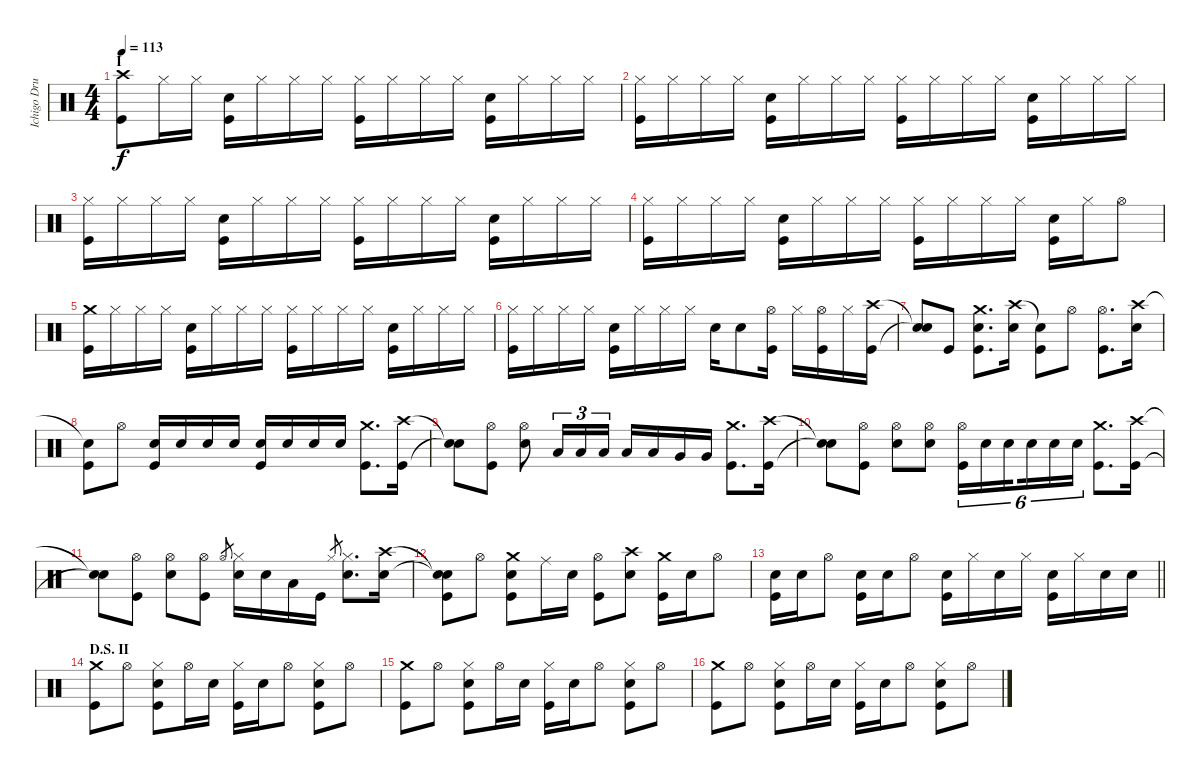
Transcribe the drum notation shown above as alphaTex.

\track ("Ichigo Drums" "Ichigo Dru") {instrument percussion}
\staff {score}
\articulation defaults
\ts (4 4)
\section ("" "I")
\tempo 113
\clef neutral
\ks c
("Crash high (hit)" "Kick (hit)").8{dy f} "Hi-Hat (closed)".16 "Hi-Hat (closed)".16 ("Snare (hit) 2" "Kick (hit)").16 "Hi-Hat (closed)".16 "Hi-Hat (closed)".16 "Hi-Hat (closed)".16 ("Hi-Hat (closed)" "Kick (hit)").16 "Hi-Hat (closed)".16 "Hi-Hat (closed)".16 "Hi-Hat (closed)".16 ("Snare (hit) 2" "Kick (hit)").16 "Hi-Hat (closed)".16 "Hi-Hat (closed)".16 "Hi-Hat (closed)".16 |
("Hi-Hat (closed)" "Kick (hit)").16 "Hi-Hat (closed)".16 "Hi-Hat (closed)".16 "Hi-Hat (closed)".16 ("Snare (hit) 2" "Kick (hit)").16 "Hi-Hat (closed)".16 "Hi-Hat (closed)".16 "Hi-Hat (closed)".16 ("Hi-Hat (closed)" "Kick (hit)").16 "Hi-Hat (closed)".16 "Hi-Hat (closed)".16 "Hi-Hat (closed)".16 ("Snare (hit) 2" "Kick (hit)").16 "Hi-Hat (closed)".16 "Hi-Hat (closed)".16 "Hi-Hat (closed)".16 |
("Hi-Hat (closed)" "Kick (hit)").16 "Hi-Hat (closed)".16 "Hi-Hat (closed)".16 "Hi-Hat (closed)".16 ("Snare (hit) 2" "Kick (hit)").16 "Hi-Hat (closed)".16 "Hi-Hat (closed)".16 "Hi-Hat (closed)".16 ("Hi-Hat (closed)" "Kick (hit)").16 "Hi-Hat (closed)".16 "Hi-Hat (closed)".16 "Hi-Hat (closed)".16 ("Snare (hit) 2" "Kick (hit)").16 "Hi-Hat (closed)".16 "Hi-Hat (closed)".16 "Hi-Hat (closed)".16 |
("Hi-Hat (closed)" "Kick (hit)").16 "Hi-Hat (closed)".16 "Hi-Hat (closed)".16 "Hi-Hat (closed)".16 ("Snare (hit) 2" "Kick (hit)").16 "Hi-Hat (closed)".16 "Hi-Hat (closed)".16 "Hi-Hat (closed)".16 ("Hi-Hat (closed)" "Kick (hit)").16 "Hi-Hat (closed)".16 "Hi-Hat (closed)".16 "Hi-Hat (closed)".16 ("Snare (hit) 2" "Kick (hit)").16 "Hi-Hat (closed)".16 "Hi-Hat (open)".8 |
("Crash medium (hit)" "Kick (hit)").16 "Hi-Hat (closed)".16 "Hi-Hat (closed)".16 "Hi-Hat (closed)".16 ("Snare (hit) 2" "Kick (hit)").16 "Hi-Hat (closed)".16 "Hi-Hat (closed)".16 "Hi-Hat (closed)".16 ("Hi-Hat (closed)" "Kick (hit)").16 "Hi-Hat (closed)".16 "Hi-Hat (closed)".16 "Hi-Hat (closed)".16 ("Snare (hit) 2" "Kick (hit)").16 "Hi-Hat (closed)".16 "Hi-Hat (closed)".16 "Hi-Hat (closed)".16 |
("Hi-Hat (closed)" "Kick (hit)").16 "Hi-Hat (closed)".16 "Hi-Hat (closed)".16 "Hi-Hat (closed)".16 ("Snare (hit) 2" "Kick (hit)").16 "Hi-Hat (closed)".16 "Hi-Hat (closed)".16 "Hi-Hat (closed)".16 "Snare (hit) 2".16 "Snare (hit) 2".8 ("Hi-Hat (open)" "Kick (hit)").16 "Hi-Hat (closed)".16 ("Hi-Hat (open)" "Kick (hit)").16 "Hi-Hat (closed)".16 ("Crash high (hit)" "Kick (hit)").16 |
("Snare (hit)"{t} "Snare (hit)"{t}).8 "Kick (hit)".8 ("Crash medium (hit)" "Snare (hit) 2" "Kick (hit)").8{d} ("Crash high (hit)" "Snare (hit) 2").16 ("Snare (hit)"{t} "Kick (hit)").8 "Hi-Hat (open)".8 ("Hi-Hat (open)" "Kick (hit)").8{d} ("Crash high (hit)" "Snare (hit) 2").16 |
("Snare (hit)"{t} "Kick (hit)").8 "Hi-Hat (open)".8 ("Snare (hit) 2" "Kick (hit)").16 "Snare (hit) 2".16 "Snare (hit) 2".16 "Snare (hit) 2".16 ("Snare (hit) 2" "Kick (hit)").16 "Snare (hit) 2".16 "Snare (hit) 2".16 "Snare (hit) 2".16 ("Crash medium (hit)" "Kick (hit)").8{d} ("Crash high (hit)" "Kick (hit)").16 |
("Snare (hit)"{t} "Snare (hit)"{t}).8 ("Hi-Hat (open)" "Kick (hit)").8 ("Hi-Hat (open)" "Snare (hit) 2").8 "Low Tom (hit)".16{tu (3 2)} "Low Tom (hit)".16{tu (3 2)} "Low Tom (hit)".16{tu (3 2)} "Low Tom (hit)".16 "Low Tom (hit)".16 "Very Low Tom (hit)".16 "Very Low Tom (hit)".16 ("Crash medium (hit)" "Kick (hit)").8{d} ("Crash high (hit)" "Kick (hit)").16 |
("Snare (hit)"{t} "Snare (hit)"{t}).8 ("Hi-Hat (open)" "Kick (hit)").8 ("Hi-Hat (open)" "Snare (hit) 2").8 ("Hi-Hat (open)" "Snare (hit) 2").8 ("Hi-Hat (open)" "Kick (hit)").16{tu (6 4)} "Snare (hit) 2".16{tu (6 4)} "Snare (hit) 2".16{tu (6 4) beam splitsecondary} "Snare (hit) 2".16{tu (6 4)} "Snare (hit) 2".16{tu (6 4)} "Snare (hit) 2".16{tu (6 4)} ("Crash medium (hit)" "Kick (hit)").8{d} ("Crash high (hit)" "Kick (hit)").16 |
("Snare (hit)"{t} "Snare (hit)"{t}).8 ("Hi-Hat (open)" "Kick (hit)").8 ("Hi-Hat (open)" "Snare (hit) 2").8 ("Hi-Hat (open)" "Kick (hit)").8 "Hi-Hat (open)".8{gr} ("Hi-Hat (closed)" "Snare (hit) 2").16 "Snare (hit) 2".16 "Low Tom (hit)".16 "Kick (hit)".16 "Hi-Hat (closed)".8{gr} ("Hi-Hat (closed)" "Snare (hit) 2").8{d} ("Crash high (hit)" "Snare (hit) 2").16 |
("Snare (hit)"{t} "Snare (hit)"{t} "Kick (hit)").8 "Hi-Hat (open)".8 ("Crash medium (hit)" "Snare (hit) 2" "Kick (hit)").8 "Ride (middle)".16 "Snare (hit) 2".16 ("Hi-Hat (open)" "Kick (hit)").8 ("Crash high (hit)" "Snare (hit) 2").8 ("Crash medium (hit)" "Kick (hit)").16 "Snare (hit) 2".16 "Hi-Hat (open)".8 |
\barLineRight lightlight
("Snare (hit) 2" "Kick (hit)").16 "Snare (hit) 2".16 "Hi-Hat (open)".8 ("Snare (hit) 2" "Kick (hit)").16 "Snare (hit) 2".16 "Hi-Hat (open)".8 ("Snare (hit) 2" "Kick (hit)").16 "Hi-Hat (closed)".16 "Snare (hit) 2".16 "Hi-Hat (closed)".16 ("Snare (hit) 2" "Kick (hit)").16 "Hi-Hat (closed)".16 "Snare (hit) 2".16 "Snare (hit) 2".16 |
\section ("" "D.S. II")
("Crash medium (hit)" "Kick (hit)").8 "Hi-Hat (open)".8 ("Hi-Hat (closed)" "Snare (hit) 2" "Kick (hit)").8 "Hi-Hat (open)".16 "Snare (hit) 2".16 ("Hi-Hat (closed)" "Kick (hit)").16 "Snare (hit) 2".16 "Hi-Hat (open)".8 ("Hi-Hat (closed)" "Snare (hit) 2" "Kick (hit)").8 "Hi-Hat (open)".8 |
("Crash medium (hit)" "Kick (hit)").8 "Hi-Hat (open)".8 ("Hi-Hat (closed)" "Snare (hit) 2" "Kick (hit)").8 "Hi-Hat (open)".16 "Snare (hit) 2".16 ("Hi-Hat (closed)" "Kick (hit)").16 "Snare (hit) 2".16 "Hi-Hat (open)".8 ("Hi-Hat (closed)" "Snare (hit) 2" "Kick (hit)").8 "Hi-Hat (open)".8 |
("Crash medium (hit)" "Kick (hit)").8 "Hi-Hat (open)".8 ("Hi-Hat (closed)" "Snare (hit) 2" "Kick (hit)").8 "Hi-Hat (open)".16 "Snare (hit) 2".16 ("Hi-Hat (closed)" "Kick (hit)").16 "Snare (hit) 2".16 "Hi-Hat (open)".8 ("Hi-Hat (closed)" "Snare (hit) 2" "Kick (hit)").8 "Hi-Hat (open)".8
